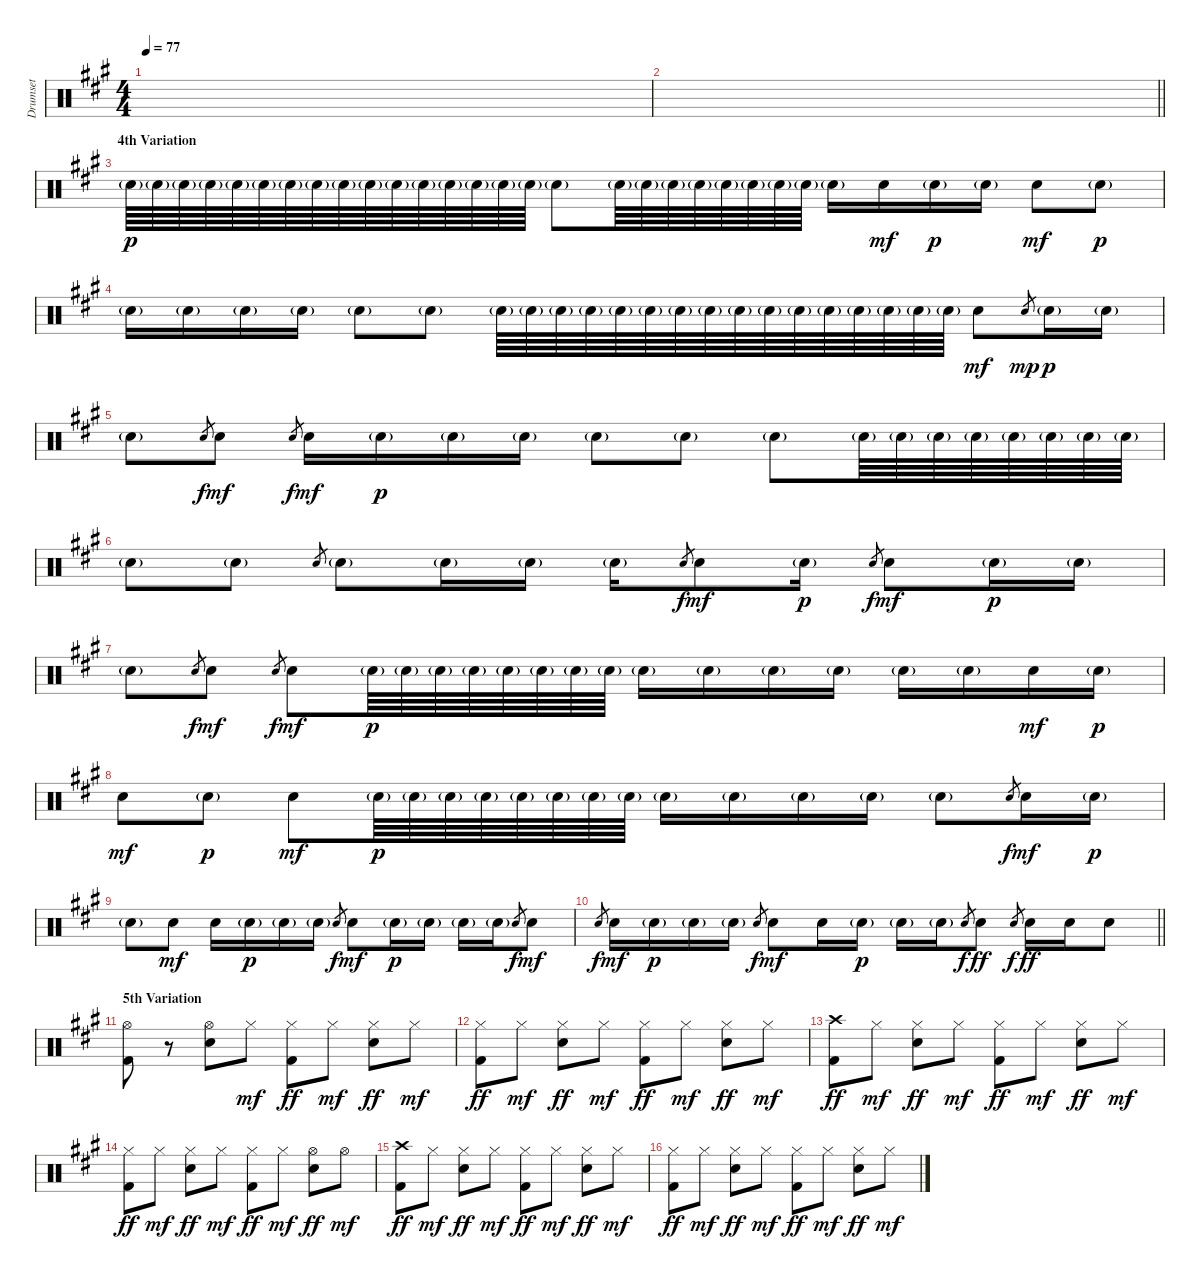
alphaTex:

\track ("Drumset" "Drumset") {instrument percussion}
\staff {score}
\articulation defaults
\ts (4 4)
\tempo 77
\clef neutral
\ks a
|
\barLineRight lightlight
|
\section ("" "4th Variation")
"Snare (hit) 2"{g}.64{dy p} "Snare (hit) 2"{g}.64 "Snare (hit) 2"{g}.64 "Snare (hit) 2"{g}.64 "Snare (hit) 2"{g}.64 "Snare (hit) 2"{g}.64 "Snare (hit) 2"{g}.64 "Snare (hit) 2"{g}.64 "Snare (hit) 2"{g}.64 "Snare (hit) 2"{g}.64 "Snare (hit) 2"{g}.64 "Snare (hit) 2"{g}.64 "Snare (hit) 2"{g}.64 "Snare (hit) 2"{g}.64 "Snare (hit) 2"{g}.64 "Snare (hit) 2"{g}.64 "Snare (hit) 2"{g}.8 "Snare (hit) 2"{g}.64 "Snare (hit) 2"{g}.64 "Snare (hit) 2"{g}.64 "Snare (hit) 2"{g}.64 "Snare (hit) 2"{g}.64 "Snare (hit) 2"{g}.64 "Snare (hit) 2"{g}.64 "Snare (hit) 2"{g}.64 "Snare (hit) 2"{g}.16 "Snare (hit) 2".16{dy mf} "Snare (hit) 2"{g}.16{dy p} "Snare (hit) 2"{g}.16 "Snare (hit) 2".8{dy mf} "Snare (hit) 2"{g}.8{dy p} |
"Snare (hit) 2"{g}.16 "Snare (hit) 2"{g}.16 "Snare (hit) 2"{g}.16 "Snare (hit) 2"{g}.16 "Snare (hit) 2"{g}.8 "Snare (hit) 2"{g}.8 "Snare (hit) 2"{g}.64 "Snare (hit) 2"{g}.64 "Snare (hit) 2"{g}.64 "Snare (hit) 2"{g}.64 "Snare (hit) 2"{g}.64 "Snare (hit) 2"{g}.64 "Snare (hit) 2"{g}.64 "Snare (hit) 2"{g}.64 "Snare (hit) 2"{g}.64 "Snare (hit) 2"{g}.64 "Snare (hit) 2"{g}.64 "Snare (hit) 2"{g}.64 "Snare (hit) 2"{g}.64 "Snare (hit) 2"{g}.64 "Snare (hit) 2"{g}.64 "Snare (hit) 2"{g}.64 "Snare (hit) 2".8{dy mf} "Snare (hit) 2".8{gr dy mp} "Snare (hit) 2"{g}.16{dy p} "Snare (hit) 2"{g}.16 |
"Snare (hit) 2"{g}.8 "Snare (hit) 2".8{gr dy f} "Snare (hit) 2".8{dy mf} "Snare (hit) 2".8{gr dy f} "Snare (hit) 2".16{dy mf} "Snare (hit) 2"{g}.16{dy p} "Snare (hit) 2"{g}.16 "Snare (hit) 2"{g}.16 "Snare (hit) 2"{g}.8 "Snare (hit) 2"{g}.8 "Snare (hit) 2"{g}.8 "Snare (hit) 2"{g}.64 "Snare (hit) 2"{g}.64 "Snare (hit) 2"{g}.64 "Snare (hit) 2"{g}.64 "Snare (hit) 2"{g}.64 "Snare (hit) 2"{g}.64 "Snare (hit) 2"{g}.64 "Snare (hit) 2"{g}.64 |
"Snare (hit) 2"{g}.8 "Snare (hit) 2"{g}.8 "Snare (hit) 2".8{gr} "Snare (hit) 2"{g}.8 "Snare (hit) 2"{g}.16 "Snare (hit) 2"{g}.16 "Snare (hit) 2"{g}.16 "Snare (hit) 2".8{gr dy f} "Snare (hit) 2".8{dy mf} "Snare (hit) 2"{g}.16{dy p} "Snare (hit) 2".8{gr dy f} "Snare (hit) 2".8{dy mf} "Snare (hit) 2"{g}.16{dy p} "Snare (hit) 2"{g}.16 |
"Snare (hit) 2"{g}.8 "Snare (hit) 2".8{gr dy f} "Snare (hit) 2".8{dy mf} "Snare (hit) 2".8{gr dy f} "Snare (hit) 2".8{dy mf} "Snare (hit) 2"{g}.64{dy p} "Snare (hit) 2"{g}.64 "Snare (hit) 2"{g}.64 "Snare (hit) 2"{g}.64 "Snare (hit) 2"{g}.64 "Snare (hit) 2"{g}.64 "Snare (hit) 2"{g}.64 "Snare (hit) 2"{g}.64 "Snare (hit) 2"{g}.16 "Snare (hit) 2"{g}.16 "Snare (hit) 2"{g}.16 "Snare (hit) 2"{g}.16 "Snare (hit) 2"{g}.16 "Snare (hit) 2"{g}.16 "Snare (hit) 2".16{dy mf} "Snare (hit) 2"{g}.16{dy p} |
"Snare (hit) 2".8{dy mf} "Snare (hit) 2"{g}.8{dy p} "Snare (hit) 2".8{dy mf} "Snare (hit) 2"{g}.64{dy p} "Snare (hit) 2"{g}.64 "Snare (hit) 2"{g}.64 "Snare (hit) 2"{g}.64 "Snare (hit) 2"{g}.64 "Snare (hit) 2"{g}.64 "Snare (hit) 2"{g}.64 "Snare (hit) 2"{g}.64 "Snare (hit) 2"{g}.16 "Snare (hit) 2"{g}.16 "Snare (hit) 2"{g}.16 "Snare (hit) 2"{g}.16 "Snare (hit) 2"{g}.8 "Snare (hit) 2".8{gr dy f} "Snare (hit) 2".16{dy mf} "Snare (hit) 2"{g}.16{dy p} |
"Snare (hit) 2"{g}.8 "Snare (hit) 2".8{dy mf} "Snare (hit) 2".16 "Snare (hit) 2"{g}.16{dy p} "Snare (hit) 2"{g}.16 "Snare (hit) 2"{g}.16 "Snare (hit) 2".8{gr dy f} "Snare (hit) 2".8{dy mf} "Snare (hit) 2"{g}.16{dy p} "Snare (hit) 2"{g}.16 "Snare (hit) 2"{g}.16 "Snare (hit) 2"{g}.16 "Snare (hit) 2".8{gr dy f} "Snare (hit) 2".8{dy mf} |
\barLineRight lightlight "Snare (hit) 2".8{gr dy f} "Snare (hit) 2".16{dy mf} "Snare (hit) 2"{g}.16{dy p} "Snare (hit) 2"{g}.16 "Snare (hit) 2"{g}.16 "Snare (hit) 2".8{gr dy f} "Snare (hit) 2".8{dy mf} "Snare (hit) 2".16 "Snare (hit) 2"{g}.16{dy p} "Snare (hit) 2"{g}.16 "Snare (hit) 2"{g}.16 "Electric Snare (hit)".8{gr dy f} "Electric Snare (hit)".8{dy ff} "Electric Snare (hit)".8{gr dy f} "Electric Snare (hit)".16{dy ff} "Electric Snare (hit)".16 "Electric Snare (hit)".8
|
\section ("" "5th Variation")
("Hi-Hat (open)" "Kick (hit) 2").8 r.8 ("Hi-Hat (open)" "Electric Snare (hit)").8 "Hi-Hat (closed)".8{dy mf} ("Hi-Hat (closed)" "Kick (hit) 2").8{dy ff} "Hi-Hat (closed)".8{dy mf} ("Hi-Hat (closed)" "Electric Snare (hit)").8{dy ff} "Hi-Hat (closed)".8{dy mf} |
("Hi-Hat (closed)" "Kick (hit) 2").8{dy ff} "Hi-Hat (closed)".8{dy mf} ("Hi-Hat (closed)" "Electric Snare (hit)").8{dy ff} "Hi-Hat (closed)".8{dy mf} ("Hi-Hat (closed)" "Kick (hit) 2").8{dy ff} "Hi-Hat (closed)".8{dy mf} ("Hi-Hat (closed)" "Electric Snare (hit)").8{dy ff} "Hi-Hat (closed)".8{dy mf} |
("Crash high (hit)" "Kick (hit) 2").8{dy ff} "Hi-Hat (closed)".8{dy mf} ("Hi-Hat (closed)" "Electric Snare (hit)").8{dy ff} "Hi-Hat (closed)".8{dy mf} ("Hi-Hat (closed)" "Kick (hit) 2").8{dy ff} "Hi-Hat (closed)".8{dy mf} ("Hi-Hat (closed)" "Electric Snare (hit)").8{dy ff} "Hi-Hat (closed)".8{dy mf} |
("Hi-Hat (closed)" "Kick (hit) 2").8{dy ff} "Hi-Hat (closed)".8{dy mf} ("Hi-Hat (closed)" "Electric Snare (hit)").8{dy ff} "Hi-Hat (closed)".8{dy mf} ("Hi-Hat (closed)" "Kick (hit) 2").8{dy ff} "Hi-Hat (closed)".8{dy mf} ("Hi-Hat (open)" "Electric Snare (hit)").8{dy ff} "Hi-Hat (open)".8{dy mf} |
("Crash high (hit)" "Kick (hit) 2").8{dy ff} "Hi-Hat (closed)".8{dy mf} ("Hi-Hat (closed)" "Electric Snare (hit)").8{dy ff} "Hi-Hat (closed)".8{dy mf} ("Hi-Hat (closed)" "Kick (hit) 2").8{dy ff} "Hi-Hat (closed)".8{dy mf} ("Hi-Hat (closed)" "Electric Snare (hit)").8{dy ff} "Hi-Hat (closed)".8{dy mf} |
("Hi-Hat (closed)" "Kick (hit) 2").8{dy ff} "Hi-Hat (closed)".8{dy mf} ("Hi-Hat (closed)" "Electric Snare (hit)").8{dy ff} "Hi-Hat (closed)".8{dy mf} ("Hi-Hat (closed)" "Kick (hit) 2").8{dy ff} "Hi-Hat (closed)".8{dy mf} ("Hi-Hat (closed)" "Electric Snare (hit)").8{dy ff} "Hi-Hat (closed)".8{dy mf}
